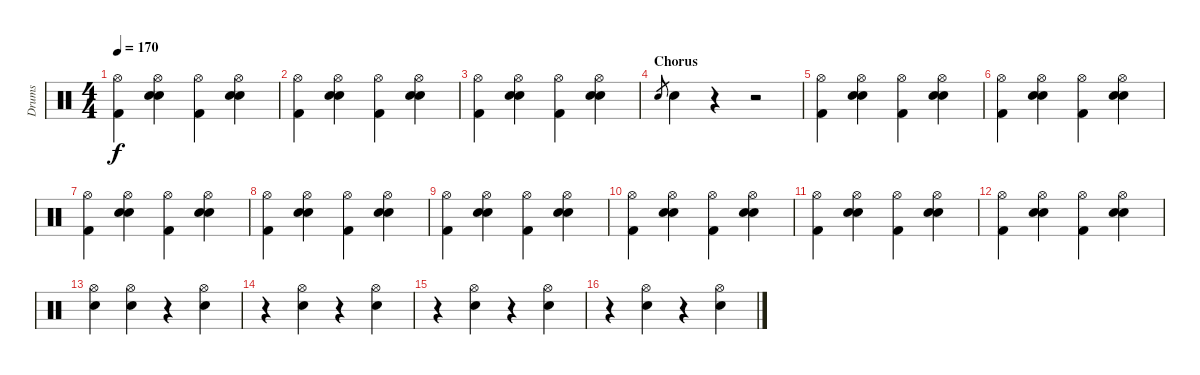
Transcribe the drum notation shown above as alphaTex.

\track ("Drums" "Drums") {instrument percussion}
\staff {score}
\articulation defaults
\ts (4 4)
\tempo 170
\clef neutral
\ks c
("Hi-Hat (open)" "Kick (hit) 2").4{dy f} ("Hi-Hat (open)" "Electric Snare (hit)" "Hand Clap (hit)").4 ("Hi-Hat (open)" "Kick (hit) 2").4 ("Hi-Hat (open)" "Electric Snare (hit)" "Hand Clap (hit)").4 |
("Hi-Hat (open)" "Kick (hit) 2").4 ("Hi-Hat (open)" "Electric Snare (hit)" "Hand Clap (hit)").4 ("Hi-Hat (open)" "Kick (hit) 2").4 ("Hi-Hat (open)" "Electric Snare (hit)" "Hand Clap (hit)").4 |
("Hi-Hat (open)" "Kick (hit) 2").4 ("Hi-Hat (open)" "Electric Snare (hit)" "Hand Clap (hit)").4 ("Hi-Hat (open)" "Kick (hit) 2").4 ("Hi-Hat (open)" "Electric Snare (hit)" "Hand Clap (hit)").4 |
\section ("" "Chorus")
"Electric Snare (hit)".8{gr} "Electric Snare (hit)".4 r.4 r.2 |
("Hi-Hat (open)" "Kick (hit) 2").4 ("Hi-Hat (open)" "Electric Snare (hit)" "Hand Clap (hit)").4 ("Hi-Hat (open)" "Kick (hit) 2").4 ("Hi-Hat (open)" "Electric Snare (hit)" "Hand Clap (hit)").4 |
("Hi-Hat (open)" "Kick (hit) 2").4 ("Hi-Hat (open)" "Electric Snare (hit)" "Hand Clap (hit)").4 ("Hi-Hat (open)" "Kick (hit) 2").4 ("Hi-Hat (open)" "Electric Snare (hit)" "Hand Clap (hit)").4 |
("Hi-Hat (open)" "Kick (hit) 2").4 ("Hi-Hat (open)" "Electric Snare (hit)" "Hand Clap (hit)").4 ("Hi-Hat (open)" "Kick (hit) 2").4 ("Hi-Hat (open)" "Electric Snare (hit)" "Hand Clap (hit)").4 |
("Hi-Hat (open)" "Kick (hit) 2").4 ("Hi-Hat (open)" "Electric Snare (hit)" "Hand Clap (hit)").4 ("Hi-Hat (open)" "Kick (hit) 2").4 ("Hi-Hat (open)" "Electric Snare (hit)" "Hand Clap (hit)").4 |
("Hi-Hat (open)" "Kick (hit) 2").4 ("Hi-Hat (open)" "Electric Snare (hit)" "Hand Clap (hit)").4 ("Hi-Hat (open)" "Kick (hit) 2").4 ("Hi-Hat (open)" "Electric Snare (hit)" "Hand Clap (hit)").4 |
("Hi-Hat (open)" "Kick (hit) 2").4 ("Hi-Hat (open)" "Electric Snare (hit)" "Hand Clap (hit)").4 ("Hi-Hat (open)" "Kick (hit) 2").4 ("Hi-Hat (open)" "Electric Snare (hit)" "Hand Clap (hit)").4 |
("Hi-Hat (open)" "Kick (hit) 2").4 ("Hi-Hat (open)" "Electric Snare (hit)" "Hand Clap (hit)").4 ("Hi-Hat (open)" "Kick (hit) 2").4 ("Hi-Hat (open)" "Electric Snare (hit)" "Hand Clap (hit)").4 |
("Hi-Hat (open)" "Kick (hit) 2").4 ("Hi-Hat (open)" "Electric Snare (hit)" "Hand Clap (hit)").4 ("Hi-Hat (open)" "Kick (hit) 2").4 ("Hi-Hat (open)" "Electric Snare (hit)" "Hand Clap (hit)").4 |
("Hi-Hat (open)" "Electric Snare (hit)").4 ("Hi-Hat (open)" "Hand Clap (hit)").4 r.4 ("Hi-Hat (open)" "Hand Clap (hit)").4 |
r.4 ("Hi-Hat (open)" "Hand Clap (hit)").4 r.4 ("Hi-Hat (open)" "Hand Clap (hit)").4 |
r.4 ("Hi-Hat (open)" "Hand Clap (hit)").4 r.4 ("Hi-Hat (open)" "Hand Clap (hit)").4 |
r.4 ("Hi-Hat (open)" "Hand Clap (hit)").4 r.4 ("Hi-Hat (open)" "Hand Clap (hit)").4
